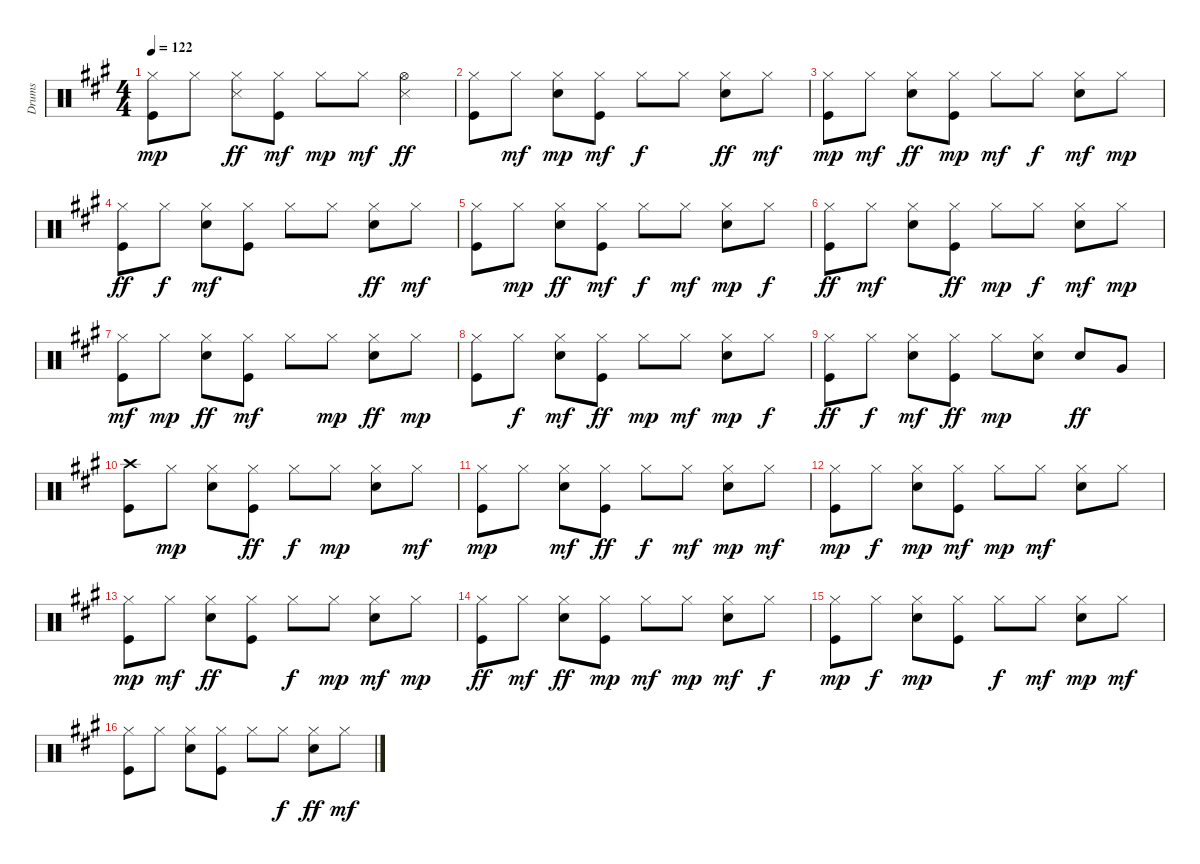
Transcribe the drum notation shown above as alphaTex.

\track ("Drums" "Drums") {instrument percussion}
\staff {score}
\articulation defaults
\ts (4 4)
\tempo 122
\clef neutral
\ks a
("Kick (hit)" "Hi-Hat (closed)").8{dy mp} "Hi-Hat (closed)".8 ("Snare (side stick) 3" "Hi-Hat (closed)").8{dy ff} ("Kick (hit)" "Hi-Hat (closed)").8{dy mf} "Hi-Hat (closed)".8{dy mp} "Hi-Hat (closed)".8{dy mf} ("Snare (side stick) 3" "Hi-Hat (open)").4{dy ff} |
("Kick (hit)" "Hi-Hat (closed)").8 "Hi-Hat (closed)".8{dy mf} ("Electric Snare (hit)" "Hi-Hat (closed)").8{dy mp} ("Kick (hit)" "Hi-Hat (closed)").8{dy mf} "Hi-Hat (closed)".8{dy f} "Hi-Hat (closed)".8 ("Electric Snare (hit)" "Hi-Hat (closed)").8{dy ff} "Hi-Hat (closed)".8{dy mf} |
("Kick (hit)" "Hi-Hat (closed)").8{dy mp} "Hi-Hat (closed)".8{dy mf} ("Electric Snare (hit)" "Hi-Hat (closed)").8{dy ff} ("Kick (hit)" "Hi-Hat (closed)").8{dy mp} "Hi-Hat (closed)".8{dy mf} "Hi-Hat (closed)".8{dy f} ("Electric Snare (hit)" "Hi-Hat (closed)").8{dy mf} "Hi-Hat (closed)".8{dy mp} |
("Kick (hit)" "Hi-Hat (closed)").8{dy ff} "Hi-Hat (closed)".8{dy f} ("Electric Snare (hit)" "Hi-Hat (closed)").8{dy mf} ("Kick (hit)" "Hi-Hat (closed)").8 "Hi-Hat (closed)".8 "Hi-Hat (closed)".8 ("Electric Snare (hit)" "Hi-Hat (closed)").8{dy ff} "Hi-Hat (closed)".8{dy mf} |
("Kick (hit)" "Hi-Hat (closed)").8 "Hi-Hat (closed)".8{dy mp} ("Electric Snare (hit)" "Hi-Hat (closed)").8{dy ff} ("Kick (hit)" "Hi-Hat (closed)").8{dy mf} "Hi-Hat (closed)".8{dy f} "Hi-Hat (closed)".8{dy mf} ("Electric Snare (hit)" "Hi-Hat (closed)").8{dy mp} "Hi-Hat (closed)".8{dy f} |
("Kick (hit)" "Hi-Hat (closed)").8{dy ff} "Hi-Hat (closed)".8{dy mf} ("Electric Snare (hit)" "Hi-Hat (closed)").8 ("Kick (hit)" "Hi-Hat (closed)").8{dy ff} "Hi-Hat (closed)".8{dy mp} "Hi-Hat (closed)".8{dy f} ("Electric Snare (hit)" "Hi-Hat (closed)").8{dy mf} "Hi-Hat (closed)".8{dy mp} |
("Kick (hit)" "Hi-Hat (closed)").8{dy mf} "Hi-Hat (closed)".8{dy mp} ("Electric Snare (hit)" "Hi-Hat (closed)").8{dy ff} ("Kick (hit)" "Hi-Hat (closed)").8{dy mf} "Hi-Hat (closed)".8 "Hi-Hat (closed)".8{dy mp} ("Electric Snare (hit)" "Hi-Hat (closed)").8{dy ff} "Hi-Hat (closed)".8{dy mp} |
("Kick (hit)" "Hi-Hat (closed)").8 "Hi-Hat (closed)".8{dy f} ("Electric Snare (hit)" "Hi-Hat (closed)").8{dy mf} ("Kick (hit)" "Hi-Hat (closed)").8{dy ff} "Hi-Hat (closed)".8{dy mp} "Hi-Hat (closed)".8{dy mf} ("Electric Snare (hit)" "Hi-Hat (closed)").8{dy mp} "Hi-Hat (closed)".8{dy f} |
("Kick (hit)" "Hi-Hat (closed)").8{dy ff} "Hi-Hat (closed)".8{dy f} ("Electric Snare (hit)" "Hi-Hat (closed)").8{dy mf} ("Kick (hit)" "Hi-Hat (closed)").8{dy ff} "Hi-Hat (closed)".8{dy mp} ("Electric Snare (hit)" "Hi-Hat (closed)").8 "Electric Snare (hit)".8{dy ff} "Very Low Tom (hit)".8 |
("Kick (hit)" "Crash high (hit)").8 "Hi-Hat (closed)".8{dy mp} ("Electric Snare (hit)" "Hi-Hat (closed)").8 ("Kick (hit)" "Hi-Hat (closed)").8{dy ff} "Hi-Hat (closed)".8{dy f} "Hi-Hat (closed)".8{dy mp} ("Electric Snare (hit)" "Hi-Hat (closed)").8 "Hi-Hat (closed)".8{dy mf} |
("Kick (hit)" "Hi-Hat (closed)").8{dy mp} "Hi-Hat (closed)".8 ("Electric Snare (hit)" "Hi-Hat (closed)").8{dy mf} ("Kick (hit)" "Hi-Hat (closed)").8{dy ff} "Hi-Hat (closed)".8{dy f} "Hi-Hat (closed)".8{dy mf} ("Electric Snare (hit)" "Hi-Hat (closed)").8{dy mp} "Hi-Hat (closed)".8{dy mf} |
("Kick (hit)" "Hi-Hat (closed)").8{dy mp} "Hi-Hat (closed)".8{dy f} ("Electric Snare (hit)" "Hi-Hat (closed)").8{dy mp} ("Kick (hit)" "Hi-Hat (closed)").8{dy mf} "Hi-Hat (closed)".8{dy mp} "Hi-Hat (closed)".8{dy mf} ("Electric Snare (hit)" "Hi-Hat (closed)").8 "Hi-Hat (closed)".8 |
("Kick (hit)" "Hi-Hat (closed)").8{dy mp} "Hi-Hat (closed)".8{dy mf} ("Electric Snare (hit)" "Hi-Hat (closed)").8{dy ff} ("Kick (hit)" "Hi-Hat (closed)").8 "Hi-Hat (closed)".8{dy f} "Hi-Hat (closed)".8{dy mp} ("Electric Snare (hit)" "Hi-Hat (closed)").8{dy mf} "Hi-Hat (closed)".8{dy mp} |
("Kick (hit)" "Hi-Hat (closed)").8{dy ff} "Hi-Hat (closed)".8{dy mf} ("Electric Snare (hit)" "Hi-Hat (closed)").8{dy ff} ("Kick (hit)" "Hi-Hat (closed)").8{dy mp} "Hi-Hat (closed)".8{dy mf} "Hi-Hat (closed)".8{dy mp} ("Electric Snare (hit)" "Hi-Hat (closed)").8{dy mf} "Hi-Hat (closed)".8{dy f} |
("Kick (hit)" "Hi-Hat (closed)").8{dy mp} "Hi-Hat (closed)".8{dy f} ("Electric Snare (hit)" "Hi-Hat (closed)").8{dy mp} ("Kick (hit)" "Hi-Hat (closed)").8 "Hi-Hat (closed)".8{dy f} "Hi-Hat (closed)".8{dy mf} ("Electric Snare (hit)" "Hi-Hat (closed)").8{dy mp} "Hi-Hat (closed)".8{dy mf} |
("Kick (hit)" "Hi-Hat (closed)").8 "Hi-Hat (closed)".8 ("Electric Snare (hit)" "Hi-Hat (closed)").8 ("Kick (hit)" "Hi-Hat (closed)").8 "Hi-Hat (closed)".8 "Hi-Hat (closed)".8{dy f} ("Electric Snare (hit)" "Hi-Hat (closed)").8{dy ff} "Hi-Hat (closed)".8{dy mf}
